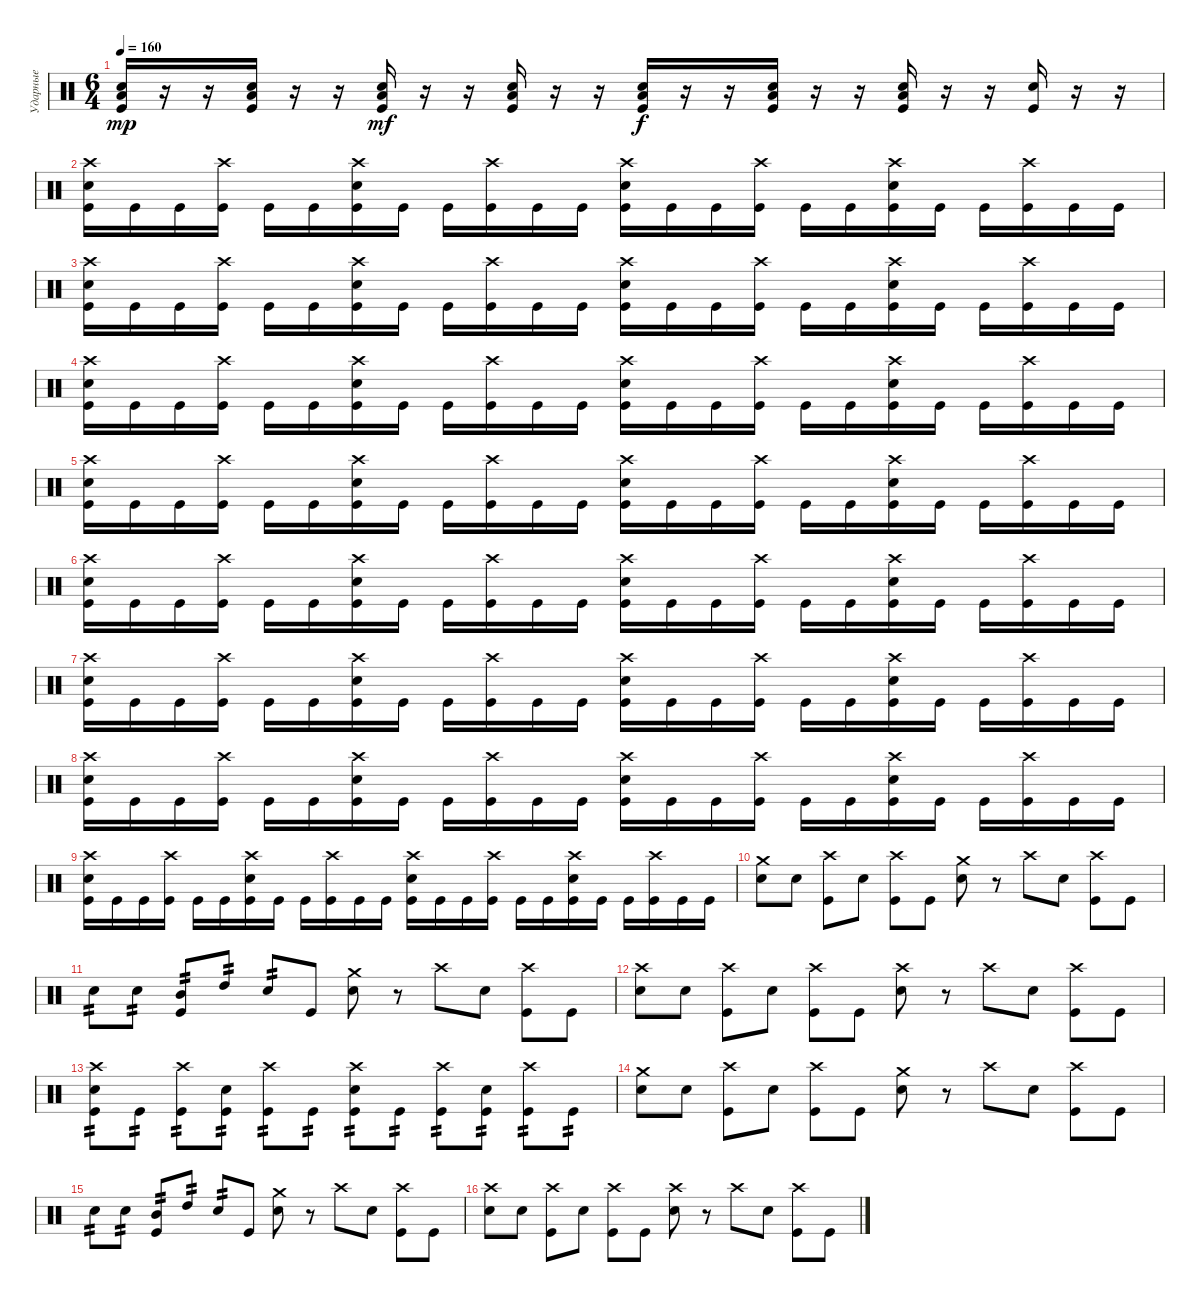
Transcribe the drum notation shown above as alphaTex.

\track ("Ударные" "Ударные") {instrument percussion}
\staff {score}
\articulation defaults
\ts (6 4)
\tempo 160
\clef neutral
\ks c
("Low Tom (hit)" "Snare (hit) 2" "Kick (hit)").16{dy mp} r.16 r.16 ("Low Tom (hit)" "Snare (hit) 2" "Kick (hit)").16 r.16 r.16 ("Low Tom (hit)" "Snare (hit) 2" "Kick (hit)").16{dy mf} r.16 r.16 ("Low Tom (hit)" "Snare (hit) 2" "Kick (hit)").16 r.16 r.16 ("Low Tom (hit)" "Snare (hit) 2" "Kick (hit)").16{dy f} r.16 r.16 ("Low Tom (hit)" "Snare (hit) 2" "Kick (hit)").16 r.16 r.16 ("Low Tom (hit)" "Snare (hit) 2" "Kick (hit)").16 r.16 r.16 ("Snare (hit) 2" "Kick (hit)").16 r.16 r.16 |
("Crash high (hit)" "Snare (hit) 2" "Kick (hit)").16 "Kick (hit)".16 "Kick (hit)".16 ("Crash high (hit)" "Kick (hit)").16 "Kick (hit)".16 "Kick (hit)".16 ("Crash high (hit)" "Snare (hit) 2" "Kick (hit)").16 "Kick (hit)".16 "Kick (hit)".16 ("Crash high (hit)" "Kick (hit)").16 "Kick (hit)".16 "Kick (hit)".16 ("Crash high (hit)" "Snare (hit) 2" "Kick (hit)").16 "Kick (hit)".16 "Kick (hit)".16 ("Crash high (hit)" "Kick (hit)").16 "Kick (hit)".16 "Kick (hit)".16 ("Crash high (hit)" "Snare (hit) 2" "Kick (hit)").16 "Kick (hit)".16 "Kick (hit)".16 ("Crash high (hit)" "Kick (hit)").16 "Kick (hit)".16 "Kick (hit)".16 |
("Crash high (hit)" "Snare (hit) 2" "Kick (hit)").16 "Kick (hit)".16 "Kick (hit)".16 ("Crash high (hit)" "Kick (hit)").16 "Kick (hit)".16 "Kick (hit)".16 ("Crash high (hit)" "Snare (hit) 2" "Kick (hit)").16 "Kick (hit)".16 "Kick (hit)".16 ("Crash high (hit)" "Kick (hit)").16 "Kick (hit)".16 "Kick (hit)".16 ("Crash high (hit)" "Snare (hit) 2" "Kick (hit)").16 "Kick (hit)".16 "Kick (hit)".16 ("Crash high (hit)" "Kick (hit)").16 "Kick (hit)".16 "Kick (hit)".16 ("Crash high (hit)" "Snare (hit) 2" "Kick (hit)").16 "Kick (hit)".16 "Kick (hit)".16 ("Crash high (hit)" "Kick (hit)").16 "Kick (hit)".16 "Kick (hit)".16 |
("Crash high (hit)" "Snare (hit) 2" "Kick (hit)").16 "Kick (hit)".16 "Kick (hit)".16 ("Crash high (hit)" "Kick (hit)").16 "Kick (hit)".16 "Kick (hit)".16 ("Crash high (hit)" "Snare (hit) 2" "Kick (hit)").16 "Kick (hit)".16 "Kick (hit)".16 ("Crash high (hit)" "Kick (hit)").16 "Kick (hit)".16 "Kick (hit)".16 ("Crash high (hit)" "Snare (hit) 2" "Kick (hit)").16 "Kick (hit)".16 "Kick (hit)".16 ("Crash high (hit)" "Kick (hit)").16 "Kick (hit)".16 "Kick (hit)".16 ("Crash high (hit)" "Snare (hit) 2" "Kick (hit)").16 "Kick (hit)".16 "Kick (hit)".16 ("Crash high (hit)" "Kick (hit)").16 "Kick (hit)".16 "Kick (hit)".16 |
("Crash high (hit)" "Snare (hit) 2" "Kick (hit)").16 "Kick (hit)".16 "Kick (hit)".16 ("Crash high (hit)" "Kick (hit)").16 "Kick (hit)".16 "Kick (hit)".16 ("Crash high (hit)" "Snare (hit) 2" "Kick (hit)").16 "Kick (hit)".16 "Kick (hit)".16 ("Crash high (hit)" "Kick (hit)").16 "Kick (hit)".16 "Kick (hit)".16 ("Crash high (hit)" "Snare (hit) 2" "Kick (hit)").16 "Kick (hit)".16 "Kick (hit)".16 ("Crash high (hit)" "Kick (hit)").16 "Kick (hit)".16 "Kick (hit)".16 ("Crash high (hit)" "Snare (hit) 2" "Kick (hit)").16 "Kick (hit)".16 "Kick (hit)".16 ("Crash high (hit)" "Kick (hit)").16 "Kick (hit)".16 "Kick (hit)".16 |
("Crash high (hit)" "Snare (hit) 2" "Kick (hit)").16 "Kick (hit)".16 "Kick (hit)".16 ("Crash high (hit)" "Kick (hit)").16 "Kick (hit)".16 "Kick (hit)".16 ("Crash high (hit)" "Snare (hit) 2" "Kick (hit)").16 "Kick (hit)".16 "Kick (hit)".16 ("Crash high (hit)" "Kick (hit)").16 "Kick (hit)".16 "Kick (hit)".16 ("Crash high (hit)" "Snare (hit) 2" "Kick (hit)").16 "Kick (hit)".16 "Kick (hit)".16 ("Crash high (hit)" "Kick (hit)").16 "Kick (hit)".16 "Kick (hit)".16 ("Crash high (hit)" "Snare (hit) 2" "Kick (hit)").16 "Kick (hit)".16 "Kick (hit)".16 ("Crash high (hit)" "Kick (hit)").16 "Kick (hit)".16 "Kick (hit)".16 |
("Crash high (hit)" "Snare (hit) 2" "Kick (hit)").16 "Kick (hit)".16 "Kick (hit)".16 ("Crash high (hit)" "Kick (hit)").16 "Kick (hit)".16 "Kick (hit)".16 ("Crash high (hit)" "Snare (hit) 2" "Kick (hit)").16 "Kick (hit)".16 "Kick (hit)".16 ("Crash high (hit)" "Kick (hit)").16 "Kick (hit)".16 "Kick (hit)".16 ("Crash high (hit)" "Snare (hit) 2" "Kick (hit)").16 "Kick (hit)".16 "Kick (hit)".16 ("Crash high (hit)" "Kick (hit)").16 "Kick (hit)".16 "Kick (hit)".16 ("Crash high (hit)" "Snare (hit) 2" "Kick (hit)").16 "Kick (hit)".16 "Kick (hit)".16 ("Crash high (hit)" "Kick (hit)").16 "Kick (hit)".16 "Kick (hit)".16 |
("Crash high (hit)" "Snare (hit) 2" "Kick (hit)").16 "Kick (hit)".16 "Kick (hit)".16 ("Crash high (hit)" "Kick (hit)").16 "Kick (hit)".16 "Kick (hit)".16 ("Crash high (hit)" "Snare (hit) 2" "Kick (hit)").16 "Kick (hit)".16 "Kick (hit)".16 ("Crash high (hit)" "Kick (hit)").16 "Kick (hit)".16 "Kick (hit)".16 ("Crash high (hit)" "Snare (hit) 2" "Kick (hit)").16 "Kick (hit)".16 "Kick (hit)".16 ("Crash high (hit)" "Kick (hit)").16 "Kick (hit)".16 "Kick (hit)".16 ("Crash high (hit)" "Snare (hit) 2" "Kick (hit)").16 "Kick (hit)".16 "Kick (hit)".16 ("Crash high (hit)" "Kick (hit)").16 "Kick (hit)".16 "Kick (hit)".16 |
("Crash high (hit)" "Snare (hit) 2" "Kick (hit)").16 "Kick (hit)".16 "Kick (hit)".16 ("Crash high (hit)" "Kick (hit)").16 "Kick (hit)".16 "Kick (hit)".16 ("Crash high (hit)" "Snare (hit) 2" "Kick (hit)").16 "Kick (hit)".16 "Kick (hit)".16 ("Crash high (hit)" "Kick (hit)").16 "Kick (hit)".16 "Kick (hit)".16 ("Crash high (hit)" "Snare (hit) 2" "Kick (hit)").16 "Kick (hit)".16 "Kick (hit)".16 ("Crash high (hit)" "Kick (hit)").16 "Kick (hit)".16 "Kick (hit)".16 ("Crash high (hit)" "Snare (hit) 2" "Kick (hit)").16 "Kick (hit)".16 "Kick (hit)".16 ("Crash high (hit)" "Kick (hit)").16 "Kick (hit)".16 "Kick (hit)".16 |
("Crash medium (hit)" "Snare (hit) 2").8 "Snare (hit) 2".8 ("Crash high (hit)" "Kick (hit)").8 "Snare (hit) 2".8 ("Crash high (hit)" "Kick (hit)").8 "Kick (hit)".8 ("Crash medium (hit)" "Snare (hit) 2").8 r.8 "Crash high (hit)".8 "Snare (hit) 2".8 ("Crash high (hit)" "Kick (hit)").8 "Kick (hit)".8 |
"Snare (hit) 2".8{tp 2} "Snare (hit) 2".8{tp 2} ("Mid Tom (hit)" "Kick (hit)").8{tp 2} "High Tom (hit)".8{tp 2} "Snare (hit) 2".8{tp 2} "Kick (hit)".8 ("Crash medium (hit)" "Snare (hit) 2").8 r.8 "Crash high (hit)".8 "Snare (hit) 2".8 ("Crash high (hit)" "Kick (hit)").8 "Kick (hit)".8 |
("Crash high (hit)" "Snare (hit) 2").8 "Snare (hit) 2".8 ("Crash high (hit)" "Kick (hit)").8 "Snare (hit) 2".8 ("Crash high (hit)" "Kick (hit)").8 "Kick (hit)".8 ("Crash high (hit)" "Snare (hit) 2").8 r.8 "Crash high (hit)".8 "Snare (hit) 2".8 ("Crash high (hit)" "Kick (hit)").8 "Kick (hit)".8 |
("Crash high (hit)" "Snare (hit) 2" "Kick (hit)").8{tp 2} "Kick (hit)".8{tp 2} ("Crash high (hit)" "Kick (hit)").8{tp 2} ("Snare (hit) 2" "Kick (hit)").8{tp 2} ("Crash high (hit)" "Kick (hit)").8{tp 2} "Kick (hit)".8{tp 2} ("Crash high (hit)" "Snare (hit) 2" "Kick (hit)").8{tp 2} "Kick (hit)".8{tp 2} ("Crash high (hit)" "Kick (hit)").8{tp 2} ("Snare (hit) 2" "Kick (hit)").8{tp 2} ("Crash high (hit)" "Kick (hit)").8{tp 2} "Kick (hit)".8{tp 2} |
("Crash medium (hit)" "Snare (hit) 2").8 "Snare (hit) 2".8 ("Crash high (hit)" "Kick (hit)").8 "Snare (hit) 2".8 ("Crash high (hit)" "Kick (hit)").8 "Kick (hit)".8 ("Crash medium (hit)" "Snare (hit) 2").8 r.8 "Crash high (hit)".8 "Snare (hit) 2".8 ("Crash high (hit)" "Kick (hit)").8 "Kick (hit)".8 |
"Snare (hit) 2".8{tp 2} "Snare (hit) 2".8{tp 2} ("Mid Tom (hit)" "Kick (hit)").8{tp 2} "High Tom (hit)".8{tp 2} "Snare (hit) 2".8{tp 2} "Kick (hit)".8 ("Crash medium (hit)" "Snare (hit) 2").8 r.8 "Crash high (hit)".8 "Snare (hit) 2".8 ("Crash high (hit)" "Kick (hit)").8 "Kick (hit)".8 |
("Crash high (hit)" "Snare (hit) 2").8 "Snare (hit) 2".8 ("Crash high (hit)" "Kick (hit)").8 "Snare (hit) 2".8 ("Crash high (hit)" "Kick (hit)").8 "Kick (hit)".8 ("Crash high (hit)" "Snare (hit) 2").8 r.8 "Crash high (hit)".8 "Snare (hit) 2".8 ("Crash high (hit)" "Kick (hit)").8 "Kick (hit)".8
